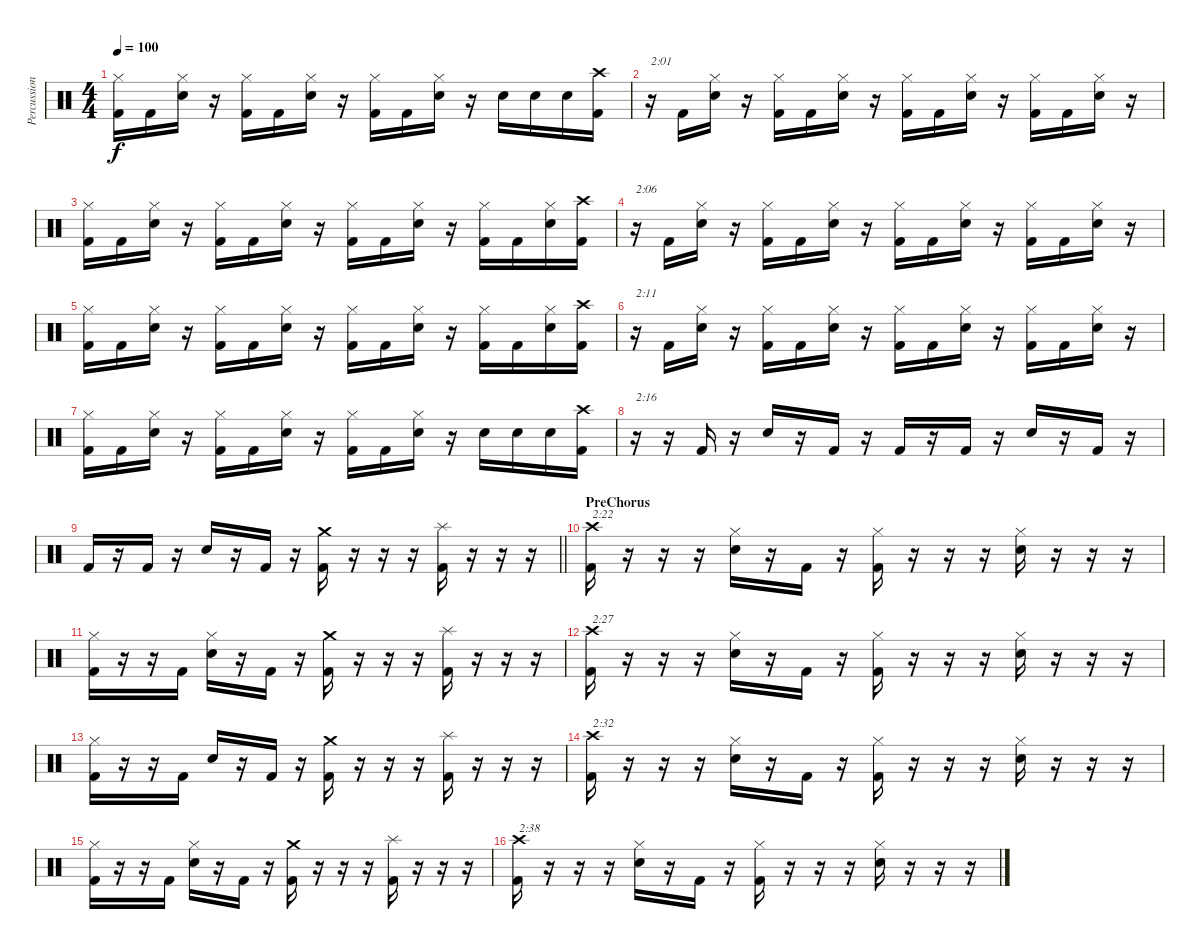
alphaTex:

\track ("Percussion" "Percussion") {instrument percussion}
\staff {score}
\articulation defaults
\ts (4 4)
\tempo 100
\clef neutral
\ks c
("Hi-Hat (closed)" "Kick (hit) 2").16{dy f} "Kick (hit) 2".16 ("Hi-Hat (closed)" "Electric Snare (hit)").16 r.16 ("Hi-Hat (closed)" "Kick (hit) 2").16 "Kick (hit) 2".16 ("Hi-Hat (closed)" "Electric Snare (hit)").16 r.16 ("Hi-Hat (closed)" "Kick (hit) 2").16 "Kick (hit) 2".16 ("Hi-Hat (closed)" "Electric Snare (hit)").16 r.16 "Electric Snare (hit)".16 "Electric Snare (hit)".16 "Electric Snare (hit)".16 ("Crash high (hit)" "Kick (hit) 2").16 |
r.16{txt "2:01"} "Kick (hit) 2".16 ("Hi-Hat (closed)" "Electric Snare (hit)").16 r.16 ("Hi-Hat (closed)" "Kick (hit) 2").16 "Kick (hit) 2".16 ("Hi-Hat (closed)" "Electric Snare (hit)").16 r.16 ("Hi-Hat (closed)" "Kick (hit) 2").16 "Kick (hit) 2".16 ("Hi-Hat (closed)" "Electric Snare (hit)").16 r.16 ("Hi-Hat (closed)" "Kick (hit) 2").16 "Kick (hit) 2".16 ("Hi-Hat (closed)" "Electric Snare (hit)").16 r.16 |
("Hi-Hat (closed)" "Kick (hit) 2").16 "Kick (hit) 2".16 ("Hi-Hat (closed)" "Electric Snare (hit)").16 r.16 ("Hi-Hat (closed)" "Kick (hit) 2").16 "Kick (hit) 2".16 ("Hi-Hat (closed)" "Electric Snare (hit)").16 r.16 ("Hi-Hat (closed)" "Kick (hit) 2").16 "Kick (hit) 2".16 ("Hi-Hat (closed)" "Electric Snare (hit)").16 r.16 ("Hi-Hat (closed)" "Kick (hit) 2").16 "Kick (hit) 2".16 ("Hi-Hat (closed)" "Electric Snare (hit)").16 ("Crash high (hit)" "Kick (hit) 2").16 |
r.16{txt "2:06"} "Kick (hit) 2".16 ("Hi-Hat (closed)" "Electric Snare (hit)").16 r.16 ("Hi-Hat (closed)" "Kick (hit) 2").16 "Kick (hit) 2".16 ("Hi-Hat (closed)" "Electric Snare (hit)").16 r.16 ("Hi-Hat (closed)" "Kick (hit) 2").16 "Kick (hit) 2".16 ("Hi-Hat (closed)" "Electric Snare (hit)").16 r.16 ("Hi-Hat (closed)" "Kick (hit) 2").16 "Kick (hit) 2".16 ("Hi-Hat (closed)" "Electric Snare (hit)").16 r.16 |
("Hi-Hat (closed)" "Kick (hit) 2").16 "Kick (hit) 2".16 ("Hi-Hat (closed)" "Electric Snare (hit)").16 r.16 ("Hi-Hat (closed)" "Kick (hit) 2").16 "Kick (hit) 2".16 ("Hi-Hat (closed)" "Electric Snare (hit)").16 r.16 ("Hi-Hat (closed)" "Kick (hit) 2").16 "Kick (hit) 2".16 ("Hi-Hat (closed)" "Electric Snare (hit)").16 r.16 ("Hi-Hat (closed)" "Kick (hit) 2").16 "Kick (hit) 2".16 ("Hi-Hat (closed)" "Electric Snare (hit)").16 ("Crash high (hit)" "Kick (hit) 2").16 |
r.16{txt "2:11"} "Kick (hit) 2".16 ("Hi-Hat (closed)" "Electric Snare (hit)").16 r.16 ("Hi-Hat (closed)" "Kick (hit) 2").16 "Kick (hit) 2".16 ("Hi-Hat (closed)" "Electric Snare (hit)").16 r.16 ("Hi-Hat (closed)" "Kick (hit) 2").16 "Kick (hit) 2".16 ("Hi-Hat (closed)" "Electric Snare (hit)").16 r.16 ("Hi-Hat (closed)" "Kick (hit) 2").16 "Kick (hit) 2".16 ("Hi-Hat (closed)" "Electric Snare (hit)").16 r.16 |
("Hi-Hat (closed)" "Kick (hit) 2").16 "Kick (hit) 2".16 ("Hi-Hat (closed)" "Electric Snare (hit)").16 r.16 ("Hi-Hat (closed)" "Kick (hit) 2").16 "Kick (hit) 2".16 ("Hi-Hat (closed)" "Electric Snare (hit)").16 r.16 ("Hi-Hat (closed)" "Kick (hit) 2").16 "Kick (hit) 2".16 ("Hi-Hat (closed)" "Electric Snare (hit)").16 r.16 "Electric Snare (hit)".16 "Electric Snare (hit)".16 "Electric Snare (hit)".16 ("Crash high (hit)" "Kick (hit) 2").16 |
r.16{txt "2:16"} r.16 "Kick (hit) 2".16 r.16 "Electric Snare (hit)".16 r.16 "Kick (hit) 2".16 r.16 "Kick (hit) 2".16 r.16 "Kick (hit) 2".16 r.16 "Electric Snare (hit)".16 r.16 "Kick (hit) 2".16 r.16 |
\barLineRight lightlight "Kick (hit) 2".16
r.16 "Kick (hit) 2".16 r.16 "Electric Snare (hit)".16 r.16 "Kick (hit) 2".16 r.16 ("Crash medium (hit)" "Kick (hit) 2").16 r.16 r.16 r.16 ("Splash (hit)" "Kick (hit) 2").16 r.16 r.16 r.16 |
\section ("" "PreChorus")
("Crash high (hit)" "Kick (hit) 2").16{txt "2:22"} r.16 r.16 r.16 ("Hi-Hat (closed)" "Electric Snare (hit)").16 r.16 "Kick (hit) 2".16 r.16 ("Hi-Hat (closed)" "Kick (hit) 2").16 r.16 r.16 r.16 ("Hi-Hat (closed)" "Electric Snare (hit)").16 r.16 r.16 r.16 |
("Hi-Hat (closed)" "Kick (hit) 2").16 r.16 r.16 "Kick (hit) 2".16 ("Hi-Hat (closed)" "Electric Snare (hit)").16 r.16 "Kick (hit) 2".16 r.16 ("Crash medium (hit)" "Kick (hit) 2").16 r.16 r.16 r.16 ("Splash (hit)" "Kick (hit) 2").16 r.16 r.16 r.16 |
("Crash high (hit)" "Kick (hit) 2").16{txt "2:27"} r.16 r.16 r.16 ("Hi-Hat (closed)" "Electric Snare (hit)").16 r.16 "Kick (hit) 2".16 r.16 ("Hi-Hat (closed)" "Kick (hit) 2").16 r.16 r.16 r.16 ("Hi-Hat (closed)" "Electric Snare (hit)").16 r.16 r.16 r.16 |
("Hi-Hat (closed)" "Kick (hit) 2").16 r.16 r.16 "Kick (hit) 2".16 "Electric Snare (hit)".16 r.16 "Kick (hit) 2".16 r.16 ("Crash medium (hit)" "Kick (hit) 2").16 r.16 r.16 r.16 ("Splash (hit)" "Kick (hit) 2").16 r.16 r.16 r.16 |
("Crash high (hit)" "Kick (hit) 2").16{txt "2:32"} r.16 r.16 r.16 ("Hi-Hat (closed)" "Electric Snare (hit)").16 r.16 "Kick (hit) 2".16 r.16 ("Hi-Hat (closed)" "Kick (hit) 2").16 r.16 r.16 r.16 ("Hi-Hat (closed)" "Electric Snare (hit)").16 r.16 r.16 r.16 |
("Hi-Hat (closed)" "Kick (hit) 2").16 r.16 r.16 "Kick (hit) 2".16 ("Hi-Hat (closed)" "Electric Snare (hit)").16 r.16 "Kick (hit) 2".16 r.16 ("Crash medium (hit)" "Kick (hit) 2").16 r.16 r.16 r.16 ("Splash (hit)" "Kick (hit) 2").16 r.16 r.16 r.16 |
("Crash high (hit)" "Kick (hit) 2").16{txt "2:38"} r.16 r.16 r.16 ("Hi-Hat (closed)" "Electric Snare (hit)").16 r.16 "Kick (hit) 2".16 r.16 ("Hi-Hat (closed)" "Kick (hit) 2").16 r.16 r.16 r.16 ("Hi-Hat (closed)" "Electric Snare (hit)").16 r.16 r.16 r.16
